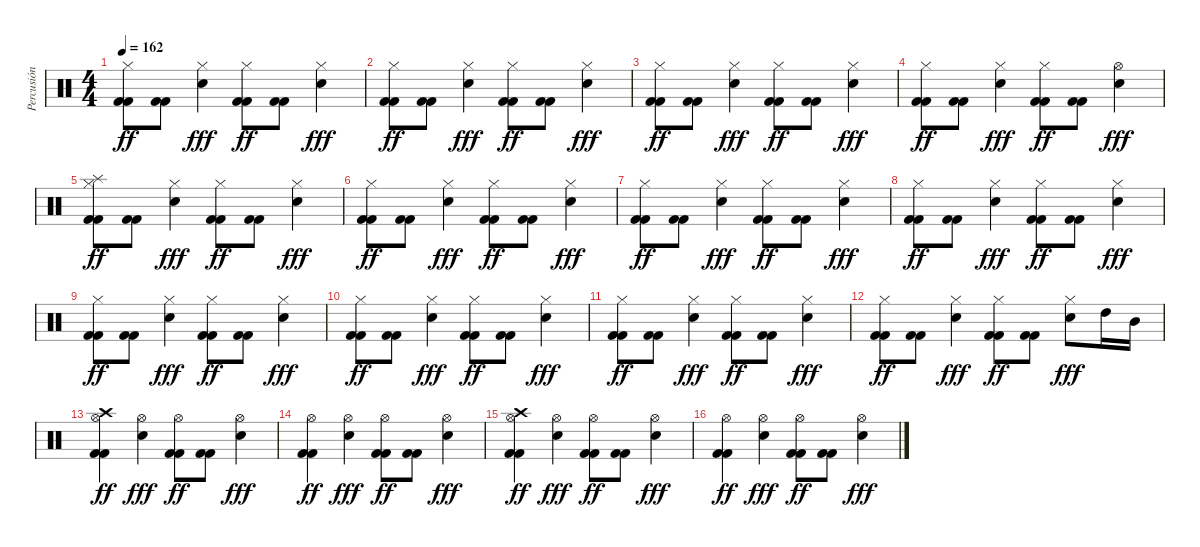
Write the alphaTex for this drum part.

\track ("Percusión" "Percusión") {instrument percussion}
\staff {score}
\articulation defaults
\ts (4 4)
\tempo 162
\clef neutral
\ks c
("Hi-Hat (closed)" "Kick (hit) 2" "Kick (hit) 2").8{dy ff} ("Kick (hit) 2" "Kick (hit) 2").8 ("Hi-Hat (closed)" "Snare (hit) 2").4{dy fff} ("Hi-Hat (closed)" "Kick (hit) 2" "Kick (hit) 2").8{dy ff} ("Kick (hit) 2" "Kick (hit) 2").8 ("Hi-Hat (closed)" "Snare (hit) 2").4{dy fff} |
("Hi-Hat (closed)" "Kick (hit) 2" "Kick (hit) 2").8{dy ff} ("Kick (hit) 2" "Kick (hit) 2").8 ("Hi-Hat (closed)" "Snare (hit) 2").4{dy fff} ("Hi-Hat (closed)" "Kick (hit) 2" "Kick (hit) 2").8{dy ff} ("Kick (hit) 2" "Kick (hit) 2").8 ("Hi-Hat (closed)" "Snare (hit) 2").4{dy fff} |
("Hi-Hat (closed)" "Kick (hit) 2" "Kick (hit) 2").8{dy ff} ("Kick (hit) 2" "Kick (hit) 2").8 ("Hi-Hat (closed)" "Snare (hit) 2").4{dy fff} ("Hi-Hat (closed)" "Kick (hit) 2" "Kick (hit) 2").8{dy ff} ("Kick (hit) 2" "Kick (hit) 2").8 ("Hi-Hat (closed)" "Snare (hit) 2").4{dy fff} |
("Hi-Hat (closed)" "Kick (hit) 2" "Kick (hit) 2").8{dy ff} ("Kick (hit) 2" "Kick (hit) 2").8 ("Hi-Hat (closed)" "Snare (hit) 2").4{dy fff} ("Hi-Hat (closed)" "Kick (hit) 2" "Kick (hit) 2").8{dy ff} ("Kick (hit) 2" "Kick (hit) 2").8 ("Hi-Hat (open)" "Snare (hit) 2").4{dy fff} |
("Splash (hit)" "Hi-Hat (closed)" "Kick (hit) 2" "Kick (hit) 2").8{dy ff} ("Kick (hit) 2" "Kick (hit) 2").8 ("Hi-Hat (closed)" "Snare (hit) 2").4{dy fff} ("Hi-Hat (closed)" "Kick (hit) 2" "Kick (hit) 2").8{dy ff} ("Kick (hit) 2" "Kick (hit) 2").8 ("Hi-Hat (closed)" "Snare (hit) 2").4{dy fff} |
("Hi-Hat (closed)" "Kick (hit) 2" "Kick (hit) 2").8{dy ff} ("Kick (hit) 2" "Kick (hit) 2").8 ("Hi-Hat (closed)" "Snare (hit) 2").4{dy fff} ("Hi-Hat (closed)" "Kick (hit) 2" "Kick (hit) 2").8{dy ff} ("Kick (hit) 2" "Kick (hit) 2").8 ("Hi-Hat (closed)" "Snare (hit) 2").4{dy fff} |
("Hi-Hat (closed)" "Kick (hit) 2" "Kick (hit) 2").8{dy ff} ("Kick (hit) 2" "Kick (hit) 2").8 ("Hi-Hat (closed)" "Snare (hit) 2").4{dy fff} ("Hi-Hat (closed)" "Kick (hit) 2" "Kick (hit) 2").8{dy ff} ("Kick (hit) 2" "Kick (hit) 2").8 ("Hi-Hat (closed)" "Snare (hit) 2").4{dy fff} |
("Hi-Hat (closed)" "Kick (hit) 2" "Kick (hit) 2").8{dy ff} ("Kick (hit) 2" "Kick (hit) 2").8 ("Hi-Hat (closed)" "Snare (hit) 2").4{dy fff} ("Hi-Hat (closed)" "Kick (hit) 2" "Kick (hit) 2").8{dy ff} ("Kick (hit) 2" "Kick (hit) 2").8 ("Hi-Hat (closed)" "Snare (hit) 2").4{dy fff} |
("Hi-Hat (closed)" "Kick (hit) 2" "Kick (hit) 2").8{dy ff} ("Kick (hit) 2" "Kick (hit) 2").8 ("Hi-Hat (closed)" "Snare (hit) 2").4{dy fff} ("Hi-Hat (closed)" "Kick (hit) 2" "Kick (hit) 2").8{dy ff} ("Kick (hit) 2" "Kick (hit) 2").8 ("Hi-Hat (closed)" "Snare (hit) 2").4{dy fff} |
("Hi-Hat (closed)" "Kick (hit) 2" "Kick (hit) 2").8{dy ff} ("Kick (hit) 2" "Kick (hit) 2").8 ("Hi-Hat (closed)" "Snare (hit) 2").4{dy fff} ("Hi-Hat (closed)" "Kick (hit) 2" "Kick (hit) 2").8{dy ff} ("Kick (hit) 2" "Kick (hit) 2").8 ("Hi-Hat (closed)" "Snare (hit) 2").4{dy fff} |
("Hi-Hat (closed)" "Kick (hit) 2" "Kick (hit) 2").8{dy ff} ("Kick (hit) 2" "Kick (hit) 2").8 ("Hi-Hat (closed)" "Snare (hit) 2").4{dy fff} ("Hi-Hat (closed)" "Kick (hit) 2" "Kick (hit) 2").8{dy ff} ("Kick (hit) 2" "Kick (hit) 2").8 ("Hi-Hat (closed)" "Snare (hit) 2").4{dy fff} |
("Hi-Hat (closed)" "Kick (hit) 2" "Kick (hit) 2").8{dy ff} ("Kick (hit) 2" "Kick (hit) 2").8 ("Hi-Hat (closed)" "Snare (hit) 2").4{dy fff} ("Hi-Hat (closed)" "Kick (hit) 2" "Kick (hit) 2").8{dy ff} ("Kick (hit) 2" "Kick (hit) 2").8 ("Hi-Hat (closed)" "Snare (hit) 2").8{dy fff} "High Tom (hit)".16 "Mid Tom (hit)".16 |
("Crash high (hit)" "Hi-Hat (open)" "Kick (hit) 2" "Kick (hit) 2").4{dy ff} ("Hi-Hat (open)" "Snare (hit) 2").4{dy fff} ("Hi-Hat (open)" "Kick (hit) 2" "Kick (hit) 2").8{dy ff} ("Kick (hit) 2" "Kick (hit) 2").8 ("Hi-Hat (open)" "Snare (hit) 2").4{dy fff} |
("Hi-Hat (open)" "Kick (hit) 2" "Kick (hit) 2").4{dy ff} ("Hi-Hat (open)" "Snare (hit) 2").4{dy fff} ("Hi-Hat (open)" "Kick (hit) 2" "Kick (hit) 2").8{dy ff} ("Kick (hit) 2" "Kick (hit) 2").8 ("Hi-Hat (open)" "Snare (hit) 2").4{dy fff} |
("Crash high (hit)" "Hi-Hat (open)" "Kick (hit) 2" "Kick (hit) 2").4{dy ff} ("Hi-Hat (open)" "Snare (hit) 2").4{dy fff} ("Hi-Hat (open)" "Kick (hit) 2" "Kick (hit) 2").8{dy ff} ("Kick (hit) 2" "Kick (hit) 2").8 ("Hi-Hat (open)" "Snare (hit) 2").4{dy fff} |
("Hi-Hat (open)" "Kick (hit) 2" "Kick (hit) 2").4{dy ff} ("Hi-Hat (open)" "Snare (hit) 2").4{dy fff} ("Hi-Hat (open)" "Kick (hit) 2" "Kick (hit) 2").8{dy ff} ("Kick (hit) 2" "Kick (hit) 2").8 ("Hi-Hat (open)" "Snare (hit) 2").4{dy fff}
